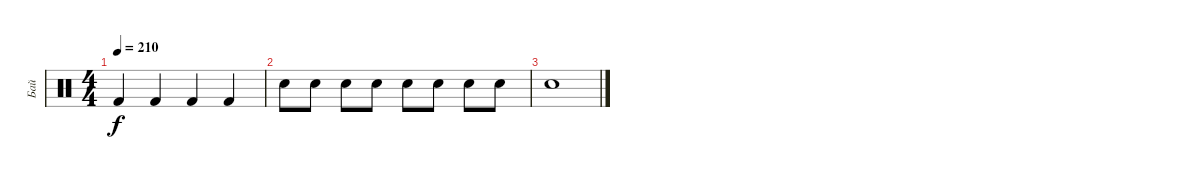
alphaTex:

\track ("Бай" "Бай") {instrument percussion}
\staff {score}
\articulation defaults
\ts (4 4)
\tempo 210
\clef neutral
\ks c "Kick (hit) 2".4{dy f} "Kick (hit) 2".4 "Kick (hit) 2".4 "Kick (hit) 2".4
|
"Electric Snare (hit)".8 "Electric Snare (hit)".8 "Electric Snare (hit)".8 "Electric Snare (hit)".8 "Electric Snare (hit)".8 "Electric Snare (hit)".8 "Electric Snare (hit)".8 "Electric Snare (hit)".8 |
"Electric Snare (hit)".1
